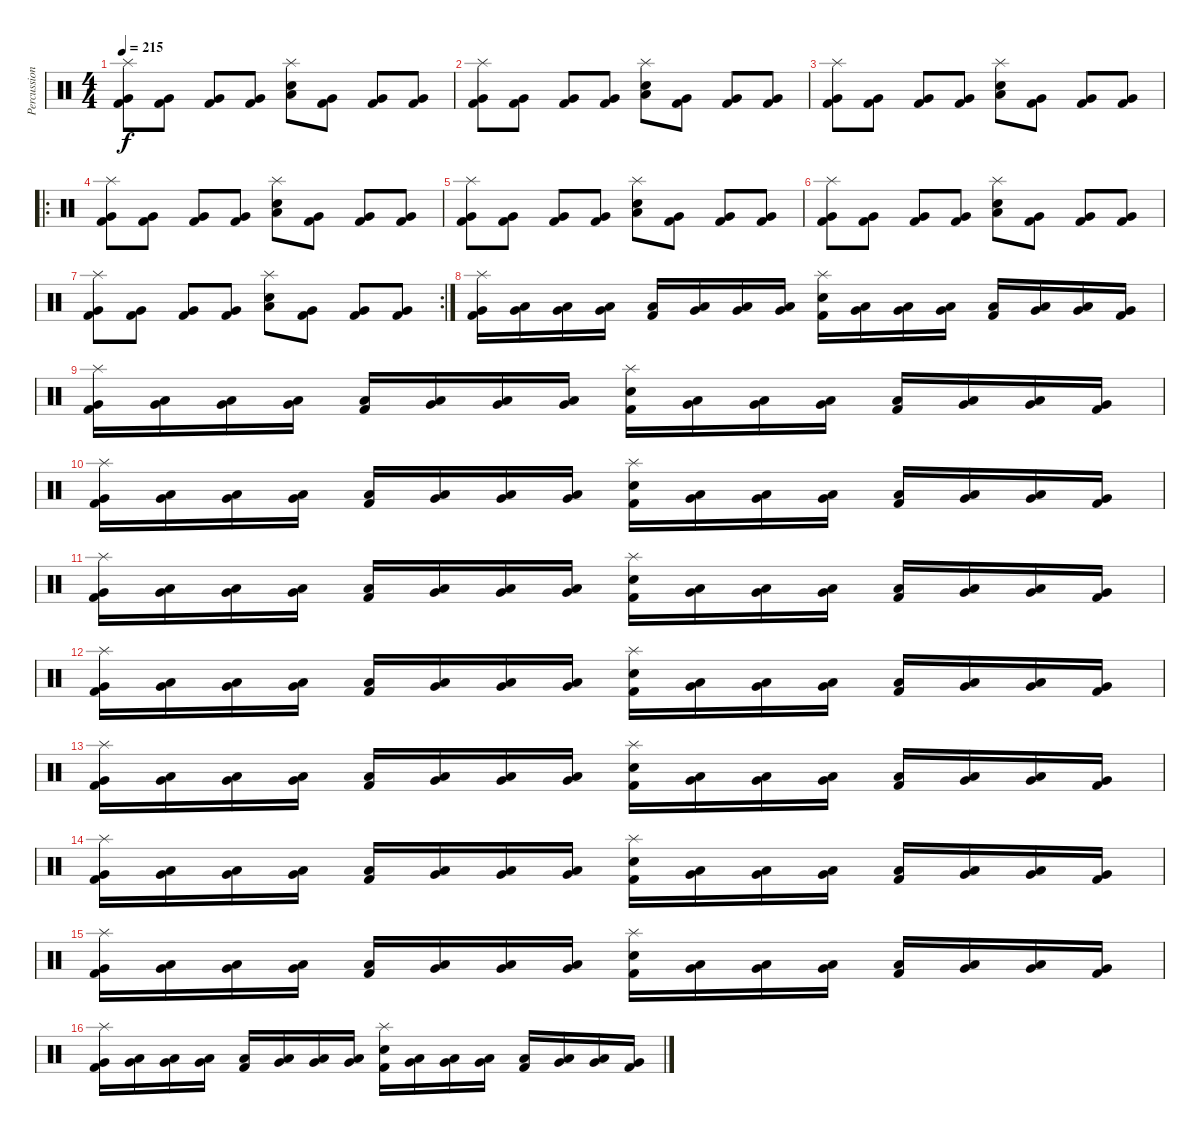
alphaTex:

\track ("Percussion" "Percussion") {instrument percussion}
\staff {score}
\articulation defaults
\ts (4 4)
\tempo 215
\clef neutral
\ks c
("Splash (hit)" "Kick (hit) 2" "Very Low Tom (hit)").8{dy f} ("Kick (hit) 2" "Very Low Tom (hit)").8 ("Kick (hit) 2" "Very Low Tom (hit)").8 ("Kick (hit) 2" "Very Low Tom (hit)").8 ("Splash (hit)" "Low Floor Tom (hit)" "Electric Snare (hit)").8 ("Kick (hit) 2" "Very Low Tom (hit)").8 ("Kick (hit) 2" "Very Low Tom (hit)").8 ("Kick (hit) 2" "Very Low Tom (hit)").8 |
("Splash (hit)" "Kick (hit) 2" "Very Low Tom (hit)").8 ("Kick (hit) 2" "Very Low Tom (hit)").8 ("Kick (hit) 2" "Very Low Tom (hit)").8 ("Kick (hit) 2" "Very Low Tom (hit)").8 ("Splash (hit)" "Low Floor Tom (hit)" "Electric Snare (hit)").8 ("Kick (hit) 2" "Very Low Tom (hit)").8 ("Kick (hit) 2" "Very Low Tom (hit)").8 ("Kick (hit) 2" "Very Low Tom (hit)").8 |
("Splash (hit)" "Kick (hit) 2" "Very Low Tom (hit)").8 ("Kick (hit) 2" "Very Low Tom (hit)").8 ("Kick (hit) 2" "Very Low Tom (hit)").8 ("Kick (hit) 2" "Very Low Tom (hit)").8 ("Splash (hit)" "Low Floor Tom (hit)" "Electric Snare (hit)").8 ("Kick (hit) 2" "Very Low Tom (hit)").8 ("Kick (hit) 2" "Very Low Tom (hit)").8 ("Kick (hit) 2" "Very Low Tom (hit)").8 |
\ro
("Splash (hit)" "Kick (hit) 2" "Very Low Tom (hit)").8 ("Kick (hit) 2" "Very Low Tom (hit)").8 ("Kick (hit) 2" "Very Low Tom (hit)").8 ("Kick (hit) 2" "Very Low Tom (hit)").8 ("Splash (hit)" "Low Floor Tom (hit)" "Electric Snare (hit)").8 ("Kick (hit) 2" "Very Low Tom (hit)").8 ("Kick (hit) 2" "Very Low Tom (hit)").8 ("Kick (hit) 2" "Very Low Tom (hit)").8 |
("Splash (hit)" "Kick (hit) 2" "Very Low Tom (hit)").8 ("Kick (hit) 2" "Very Low Tom (hit)").8 ("Kick (hit) 2" "Very Low Tom (hit)").8 ("Kick (hit) 2" "Very Low Tom (hit)").8 ("Splash (hit)" "Low Floor Tom (hit)" "Electric Snare (hit)").8 ("Kick (hit) 2" "Very Low Tom (hit)").8 ("Kick (hit) 2" "Very Low Tom (hit)").8 ("Kick (hit) 2" "Very Low Tom (hit)").8 |
("Splash (hit)" "Kick (hit) 2" "Very Low Tom (hit)").8 ("Kick (hit) 2" "Very Low Tom (hit)").8 ("Kick (hit) 2" "Very Low Tom (hit)").8 ("Kick (hit) 2" "Very Low Tom (hit)").8 ("Splash (hit)" "Low Floor Tom (hit)" "Electric Snare (hit)").8 ("Kick (hit) 2" "Very Low Tom (hit)").8 ("Kick (hit) 2" "Very Low Tom (hit)").8 ("Kick (hit) 2" "Very Low Tom (hit)").8 |
\rc 2
("Splash (hit)" "Kick (hit) 2" "Very Low Tom (hit)").8 ("Kick (hit) 2" "Very Low Tom (hit)").8 ("Kick (hit) 2" "Very Low Tom (hit)").8 ("Kick (hit) 2" "Very Low Tom (hit)").8 ("Splash (hit)" "Low Floor Tom (hit)" "Electric Snare (hit)").8 ("Kick (hit) 2" "Very Low Tom (hit)").8 ("Kick (hit) 2" "Very Low Tom (hit)").8 ("Kick (hit) 2" "Very Low Tom (hit)").8 |
("Splash (hit)" "Kick (hit) 2" "Very Low Tom (hit)").16 ("Low Floor Tom (hit)" "Very Low Tom (hit)").16 ("Low Floor Tom (hit)" "Very Low Tom (hit)").16 ("Low Floor Tom (hit)" "Very Low Tom (hit)").16 ("Kick (hit) 2" "Low Floor Tom (hit)").16 ("Low Floor Tom (hit)" "Very Low Tom (hit)").16 ("Low Floor Tom (hit)" "Very Low Tom (hit)").16 ("Low Floor Tom (hit)" "Very Low Tom (hit)").16 ("Splash (hit)" "Kick (hit) 2" "Electric Snare (hit)").16 ("Low Floor Tom (hit)" "Very Low Tom (hit)").16 ("Low Floor Tom (hit)" "Very Low Tom (hit)").16 ("Low Floor Tom (hit)" "Very Low Tom (hit)").16 ("Kick (hit) 2" "Low Floor Tom (hit)").16 ("Low Floor Tom (hit)" "Very Low Tom (hit)").16 ("Low Floor Tom (hit)" "Very Low Tom (hit)").16 ("Kick (hit) 2" "Very Low Tom (hit)").16 |
("Splash (hit)" "Kick (hit) 2" "Very Low Tom (hit)").16 ("Low Floor Tom (hit)" "Very Low Tom (hit)").16 ("Low Floor Tom (hit)" "Very Low Tom (hit)").16 ("Low Floor Tom (hit)" "Very Low Tom (hit)").16 ("Kick (hit) 2" "Low Floor Tom (hit)").16 ("Low Floor Tom (hit)" "Very Low Tom (hit)").16 ("Low Floor Tom (hit)" "Very Low Tom (hit)").16 ("Low Floor Tom (hit)" "Very Low Tom (hit)").16 ("Splash (hit)" "Kick (hit) 2" "Electric Snare (hit)").16 ("Low Floor Tom (hit)" "Very Low Tom (hit)").16 ("Low Floor Tom (hit)" "Very Low Tom (hit)").16 ("Low Floor Tom (hit)" "Very Low Tom (hit)").16 ("Kick (hit) 2" "Low Floor Tom (hit)").16 ("Low Floor Tom (hit)" "Very Low Tom (hit)").16 ("Low Floor Tom (hit)" "Very Low Tom (hit)").16 ("Kick (hit) 2" "Very Low Tom (hit)").16 |
("Splash (hit)" "Kick (hit) 2" "Very Low Tom (hit)").16 ("Low Floor Tom (hit)" "Very Low Tom (hit)").16 ("Low Floor Tom (hit)" "Very Low Tom (hit)").16 ("Low Floor Tom (hit)" "Very Low Tom (hit)").16 ("Kick (hit) 2" "Low Floor Tom (hit)").16 ("Low Floor Tom (hit)" "Very Low Tom (hit)").16 ("Low Floor Tom (hit)" "Very Low Tom (hit)").16 ("Low Floor Tom (hit)" "Very Low Tom (hit)").16 ("Splash (hit)" "Kick (hit) 2" "Electric Snare (hit)").16 ("Low Floor Tom (hit)" "Very Low Tom (hit)").16 ("Low Floor Tom (hit)" "Very Low Tom (hit)").16 ("Low Floor Tom (hit)" "Very Low Tom (hit)").16 ("Kick (hit) 2" "Low Floor Tom (hit)").16 ("Low Floor Tom (hit)" "Very Low Tom (hit)").16 ("Low Floor Tom (hit)" "Very Low Tom (hit)").16 ("Kick (hit) 2" "Very Low Tom (hit)").16 |
("Splash (hit)" "Kick (hit) 2" "Very Low Tom (hit)").16 ("Low Floor Tom (hit)" "Very Low Tom (hit)").16 ("Low Floor Tom (hit)" "Very Low Tom (hit)").16 ("Low Floor Tom (hit)" "Very Low Tom (hit)").16 ("Kick (hit) 2" "Low Floor Tom (hit)").16 ("Low Floor Tom (hit)" "Very Low Tom (hit)").16 ("Low Floor Tom (hit)" "Very Low Tom (hit)").16 ("Low Floor Tom (hit)" "Very Low Tom (hit)").16 ("Splash (hit)" "Kick (hit) 2" "Electric Snare (hit)").16 ("Low Floor Tom (hit)" "Very Low Tom (hit)").16 ("Low Floor Tom (hit)" "Very Low Tom (hit)").16 ("Low Floor Tom (hit)" "Very Low Tom (hit)").16 ("Kick (hit) 2" "Low Floor Tom (hit)").16 ("Low Floor Tom (hit)" "Very Low Tom (hit)").16 ("Low Floor Tom (hit)" "Very Low Tom (hit)").16 ("Kick (hit) 2" "Very Low Tom (hit)").16 |
("Splash (hit)" "Kick (hit) 2" "Very Low Tom (hit)").16 ("Low Floor Tom (hit)" "Very Low Tom (hit)").16 ("Low Floor Tom (hit)" "Very Low Tom (hit)").16 ("Low Floor Tom (hit)" "Very Low Tom (hit)").16 ("Kick (hit) 2" "Low Floor Tom (hit)").16 ("Low Floor Tom (hit)" "Very Low Tom (hit)").16 ("Low Floor Tom (hit)" "Very Low Tom (hit)").16 ("Low Floor Tom (hit)" "Very Low Tom (hit)").16 ("Splash (hit)" "Kick (hit) 2" "Electric Snare (hit)").16 ("Low Floor Tom (hit)" "Very Low Tom (hit)").16 ("Low Floor Tom (hit)" "Very Low Tom (hit)").16 ("Low Floor Tom (hit)" "Very Low Tom (hit)").16 ("Kick (hit) 2" "Low Floor Tom (hit)").16 ("Low Floor Tom (hit)" "Very Low Tom (hit)").16 ("Low Floor Tom (hit)" "Very Low Tom (hit)").16 ("Kick (hit) 2" "Very Low Tom (hit)").16 |
("Splash (hit)" "Kick (hit) 2" "Very Low Tom (hit)").16 ("Low Floor Tom (hit)" "Very Low Tom (hit)").16 ("Low Floor Tom (hit)" "Very Low Tom (hit)").16 ("Low Floor Tom (hit)" "Very Low Tom (hit)").16 ("Kick (hit) 2" "Low Floor Tom (hit)").16 ("Low Floor Tom (hit)" "Very Low Tom (hit)").16 ("Low Floor Tom (hit)" "Very Low Tom (hit)").16 ("Low Floor Tom (hit)" "Very Low Tom (hit)").16 ("Splash (hit)" "Kick (hit) 2" "Electric Snare (hit)").16 ("Low Floor Tom (hit)" "Very Low Tom (hit)").16 ("Low Floor Tom (hit)" "Very Low Tom (hit)").16 ("Low Floor Tom (hit)" "Very Low Tom (hit)").16 ("Kick (hit) 2" "Low Floor Tom (hit)").16 ("Low Floor Tom (hit)" "Very Low Tom (hit)").16 ("Low Floor Tom (hit)" "Very Low Tom (hit)").16 ("Kick (hit) 2" "Very Low Tom (hit)").16 |
("Splash (hit)" "Kick (hit) 2" "Very Low Tom (hit)").16 ("Low Floor Tom (hit)" "Very Low Tom (hit)").16 ("Low Floor Tom (hit)" "Very Low Tom (hit)").16 ("Low Floor Tom (hit)" "Very Low Tom (hit)").16 ("Kick (hit) 2" "Low Floor Tom (hit)").16 ("Low Floor Tom (hit)" "Very Low Tom (hit)").16 ("Low Floor Tom (hit)" "Very Low Tom (hit)").16 ("Low Floor Tom (hit)" "Very Low Tom (hit)").16 ("Splash (hit)" "Kick (hit) 2" "Electric Snare (hit)").16 ("Low Floor Tom (hit)" "Very Low Tom (hit)").16 ("Low Floor Tom (hit)" "Very Low Tom (hit)").16 ("Low Floor Tom (hit)" "Very Low Tom (hit)").16 ("Kick (hit) 2" "Low Floor Tom (hit)").16 ("Low Floor Tom (hit)" "Very Low Tom (hit)").16 ("Low Floor Tom (hit)" "Very Low Tom (hit)").16 ("Kick (hit) 2" "Very Low Tom (hit)").16 |
("Splash (hit)" "Kick (hit) 2" "Very Low Tom (hit)").16 ("Low Floor Tom (hit)" "Very Low Tom (hit)").16 ("Low Floor Tom (hit)" "Very Low Tom (hit)").16 ("Low Floor Tom (hit)" "Very Low Tom (hit)").16 ("Kick (hit) 2" "Low Floor Tom (hit)").16 ("Low Floor Tom (hit)" "Very Low Tom (hit)").16 ("Low Floor Tom (hit)" "Very Low Tom (hit)").16 ("Low Floor Tom (hit)" "Very Low Tom (hit)").16 ("Splash (hit)" "Kick (hit) 2" "Electric Snare (hit)").16 ("Low Floor Tom (hit)" "Very Low Tom (hit)").16 ("Low Floor Tom (hit)" "Very Low Tom (hit)").16 ("Low Floor Tom (hit)" "Very Low Tom (hit)").16 ("Kick (hit) 2" "Low Floor Tom (hit)").16 ("Low Floor Tom (hit)" "Very Low Tom (hit)").16 ("Low Floor Tom (hit)" "Very Low Tom (hit)").16 ("Kick (hit) 2" "Very Low Tom (hit)").16 |
("Splash (hit)" "Kick (hit) 2" "Very Low Tom (hit)").16 ("Low Floor Tom (hit)" "Very Low Tom (hit)").16 ("Low Floor Tom (hit)" "Very Low Tom (hit)").16 ("Low Floor Tom (hit)" "Very Low Tom (hit)").16 ("Kick (hit) 2" "Low Floor Tom (hit)").16 ("Low Floor Tom (hit)" "Very Low Tom (hit)").16 ("Low Floor Tom (hit)" "Very Low Tom (hit)").16 ("Low Floor Tom (hit)" "Very Low Tom (hit)").16 ("Splash (hit)" "Kick (hit) 2" "Electric Snare (hit)").16 ("Low Floor Tom (hit)" "Very Low Tom (hit)").16 ("Low Floor Tom (hit)" "Very Low Tom (hit)").16 ("Low Floor Tom (hit)" "Very Low Tom (hit)").16 ("Kick (hit) 2" "Low Floor Tom (hit)").16 ("Low Floor Tom (hit)" "Very Low Tom (hit)").16 ("Low Floor Tom (hit)" "Very Low Tom (hit)").16 ("Kick (hit) 2" "Very Low Tom (hit)").16
